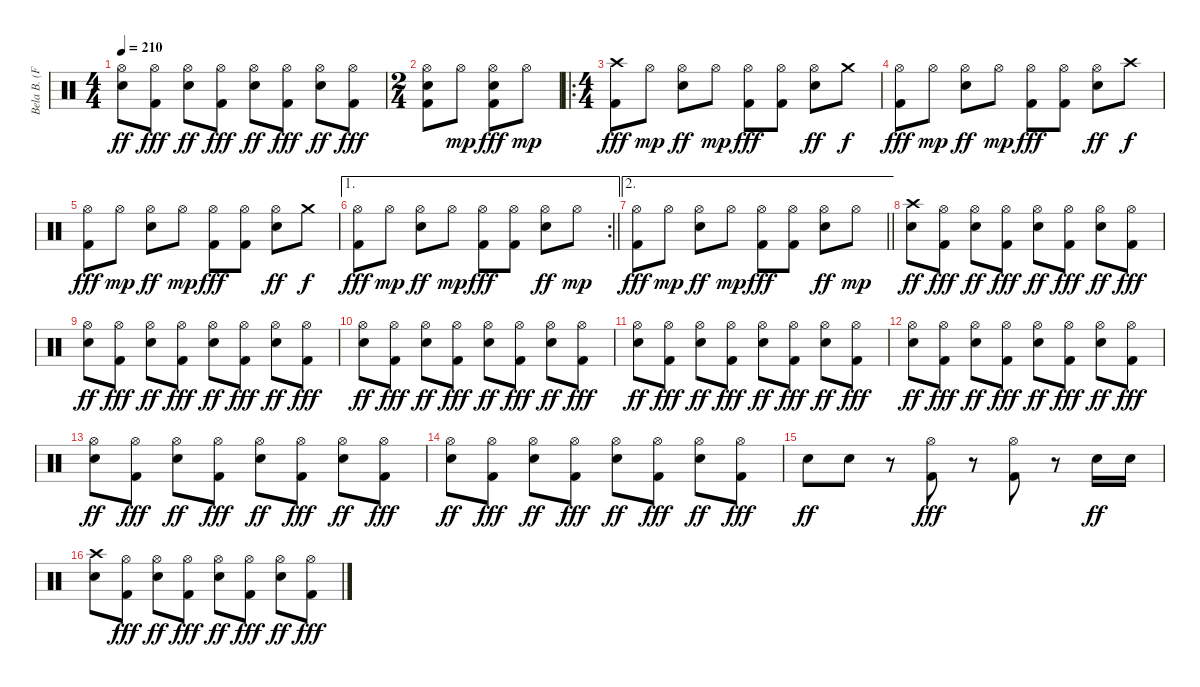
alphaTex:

\track ("Bela B. (Felsenheimer)" "Bela B. (F") {instrument percussion}
\staff {score}
\articulation defaults
\ts (4 4)
\tempo 210
\clef neutral
\ks c
("Hi-Hat (open)" "Electric Snare (hit)").8{dy ff} ("Hi-Hat (open)" "Kick (hit) 2").8{dy fff} ("Hi-Hat (open)" "Electric Snare (hit)").8{dy ff} ("Hi-Hat (open)" "Kick (hit) 2").8{dy fff} ("Hi-Hat (open)" "Electric Snare (hit)").8{dy ff} ("Hi-Hat (open)" "Kick (hit) 2").8{dy fff} ("Hi-Hat (open)" "Electric Snare (hit)").8{dy ff} ("Hi-Hat (open)" "Kick (hit) 2").8{dy fff} |
\ts (2 4)
("Hi-Hat (open)" "Electric Snare (hit)" "Kick (hit) 2").8 "Hi-Hat (open)".8{dy mp} ("Hi-Hat (open)" "Electric Snare (hit)" "Kick (hit) 2").8{dy fff} "Hi-Hat (open)".8{dy mp} |
\ro
\ts (4 4)
("Crash high (hit)" "Kick (hit) 2").8{dy fff} "Hi-Hat (open)".8{dy mp} ("Hi-Hat (open)" "Electric Snare (hit)").8{dy ff} "Hi-Hat (open)".8{dy mp} ("Hi-Hat (open)" "Kick (hit) 2").8{dy fff} ("Hi-Hat (open)" "Kick (hit) 2").8 ("Hi-Hat (open)" "Electric Snare (hit)").8{dy ff} "Crash medium (hit)".8{dy f} |
("Hi-Hat (open)" "Kick (hit) 2").8{dy fff} "Hi-Hat (open)".8{dy mp} ("Hi-Hat (open)" "Electric Snare (hit)").8{dy ff} "Hi-Hat (open)".8{dy mp} ("Hi-Hat (open)" "Kick (hit) 2").8{dy fff} ("Hi-Hat (open)" "Kick (hit) 2").8 ("Hi-Hat (open)" "Electric Snare (hit)").8{dy ff} "Crash high (hit)".8{dy f} |
("Hi-Hat (open)" "Kick (hit) 2").8{dy fff} "Hi-Hat (open)".8{dy mp} ("Hi-Hat (open)" "Electric Snare (hit)").8{dy ff} "Hi-Hat (open)".8{dy mp} ("Hi-Hat (open)" "Kick (hit) 2").8{dy fff} ("Hi-Hat (open)" "Kick (hit) 2").8 ("Hi-Hat (open)" "Electric Snare (hit)").8{dy ff} "Crash medium (hit)".8{dy f} |
\ae 1
\rc 2
\barLineRight lightlight
("Hi-Hat (open)" "Kick (hit) 2").8{dy fff} "Hi-Hat (open)".8{dy mp} ("Hi-Hat (open)" "Electric Snare (hit)").8{dy ff} "Hi-Hat (open)".8{dy mp} ("Hi-Hat (open)" "Kick (hit) 2").8{dy fff} ("Hi-Hat (open)" "Kick (hit) 2").8 ("Hi-Hat (open)" "Electric Snare (hit)").8{dy ff} "Hi-Hat (open)".8{dy mp} |
\ae 2
\barLineRight lightlight
("Hi-Hat (open)" "Kick (hit) 2").8{dy fff} "Hi-Hat (open)".8{dy mp} ("Hi-Hat (open)" "Electric Snare (hit)").8{dy ff} "Hi-Hat (open)".8{dy mp} ("Hi-Hat (open)" "Kick (hit) 2").8{dy fff} ("Hi-Hat (open)" "Kick (hit) 2").8 ("Hi-Hat (open)" "Electric Snare (hit)").8{dy ff} "Hi-Hat (open)".8{dy mp} |
("Crash high (hit)" "Electric Snare (hit)").8{dy ff} ("Hi-Hat (open)" "Kick (hit) 2").8{dy fff} ("Hi-Hat (open)" "Electric Snare (hit)").8{dy ff} ("Hi-Hat (open)" "Kick (hit) 2").8{dy fff} ("Hi-Hat (open)" "Electric Snare (hit)").8{dy ff} ("Hi-Hat (open)" "Kick (hit) 2").8{dy fff} ("Hi-Hat (open)" "Electric Snare (hit)").8{dy ff} ("Hi-Hat (open)" "Kick (hit) 2").8{dy fff} |
("Hi-Hat (open)" "Electric Snare (hit)").8{dy ff} ("Hi-Hat (open)" "Kick (hit) 2").8{dy fff} ("Hi-Hat (open)" "Electric Snare (hit)").8{dy ff} ("Hi-Hat (open)" "Kick (hit) 2").8{dy fff} ("Hi-Hat (open)" "Electric Snare (hit)").8{dy ff} ("Hi-Hat (open)" "Kick (hit) 2").8{dy fff} ("Hi-Hat (open)" "Electric Snare (hit)").8{dy ff} ("Hi-Hat (open)" "Kick (hit) 2").8{dy fff} |
("Hi-Hat (open)" "Electric Snare (hit)").8{dy ff} ("Hi-Hat (open)" "Kick (hit) 2").8{dy fff} ("Hi-Hat (open)" "Electric Snare (hit)").8{dy ff} ("Hi-Hat (open)" "Kick (hit) 2").8{dy fff} ("Hi-Hat (open)" "Electric Snare (hit)").8{dy ff} ("Hi-Hat (open)" "Kick (hit) 2").8{dy fff} ("Hi-Hat (open)" "Electric Snare (hit)").8{dy ff} ("Hi-Hat (open)" "Kick (hit) 2").8{dy fff} |
("Hi-Hat (open)" "Electric Snare (hit)").8{dy ff} ("Hi-Hat (open)" "Kick (hit) 2").8{dy fff} ("Hi-Hat (open)" "Electric Snare (hit)").8{dy ff} ("Hi-Hat (open)" "Kick (hit) 2").8{dy fff} ("Hi-Hat (open)" "Electric Snare (hit)").8{dy ff} ("Hi-Hat (open)" "Kick (hit) 2").8{dy fff} ("Hi-Hat (open)" "Electric Snare (hit)").8{dy ff} ("Hi-Hat (open)" "Kick (hit) 2").8{dy fff} |
("Hi-Hat (open)" "Electric Snare (hit)").8{dy ff} ("Hi-Hat (open)" "Kick (hit) 2").8{dy fff} ("Hi-Hat (open)" "Electric Snare (hit)").8{dy ff} ("Hi-Hat (open)" "Kick (hit) 2").8{dy fff} ("Hi-Hat (open)" "Electric Snare (hit)").8{dy ff} ("Hi-Hat (open)" "Kick (hit) 2").8{dy fff} ("Hi-Hat (open)" "Electric Snare (hit)").8{dy ff} ("Hi-Hat (open)" "Kick (hit) 2").8{dy fff} |
("Hi-Hat (open)" "Electric Snare (hit)").8{dy ff} ("Hi-Hat (open)" "Kick (hit) 2").8{dy fff} ("Hi-Hat (open)" "Electric Snare (hit)").8{dy ff} ("Hi-Hat (open)" "Kick (hit) 2").8{dy fff} ("Hi-Hat (open)" "Electric Snare (hit)").8{dy ff} ("Hi-Hat (open)" "Kick (hit) 2").8{dy fff} ("Hi-Hat (open)" "Electric Snare (hit)").8{dy ff} ("Hi-Hat (open)" "Kick (hit) 2").8{dy fff} |
("Hi-Hat (open)" "Electric Snare (hit)").8{dy ff} ("Hi-Hat (open)" "Kick (hit) 2").8{dy fff} ("Hi-Hat (open)" "Electric Snare (hit)").8{dy ff} ("Hi-Hat (open)" "Kick (hit) 2").8{dy fff} ("Hi-Hat (open)" "Electric Snare (hit)").8{dy ff} ("Hi-Hat (open)" "Kick (hit) 2").8{dy fff} ("Hi-Hat (open)" "Electric Snare (hit)").8{dy ff} ("Hi-Hat (open)" "Kick (hit) 2").8{dy fff} |
"Electric Snare (hit)".8{dy ff} "Electric Snare (hit)".8 r.8 ("Hi-Hat (open)" "Kick (hit) 2").8{dy fff} r.8 ("Hi-Hat (open)" "Kick (hit) 2").8 r.8 "Electric Snare (hit)".16{dy ff} "Electric Snare (hit)".16 |
("Crash high (hit)" "Electric Snare (hit)").8 ("Hi-Hat (open)" "Kick (hit) 2").8{dy fff} ("Hi-Hat (open)" "Electric Snare (hit)").8{dy ff} ("Hi-Hat (open)" "Kick (hit) 2").8{dy fff} ("Hi-Hat (open)" "Electric Snare (hit)").8{dy ff} ("Hi-Hat (open)" "Kick (hit) 2").8{dy fff} ("Hi-Hat (open)" "Electric Snare (hit)").8{dy ff} ("Hi-Hat (open)" "Kick (hit) 2").8{dy fff}
